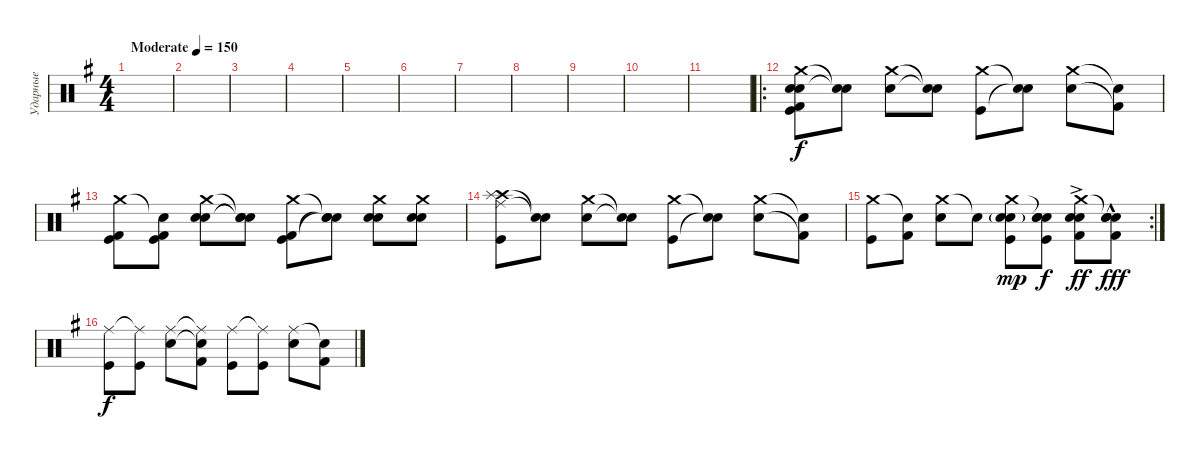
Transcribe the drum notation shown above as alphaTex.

\track ("Ударные" "Ударные") {instrument percussion}
\staff {score}
\articulation defaults
\ts (4 4)
\tempo (150 "Moderate")
\clef neutral
\ks g
|
|
|
|
|
|
|
|
|
|
|
\ro
("Crash medium (hit)" "Electric Snare (hit)" "Snare (hit) 2" "Kick (hit) 2" "Kick (hit)").8 ("Snare (hit)"{t} "Snare (hit)"{t}).8 ("Crash medium (hit)" "Snare (hit) 2").8 ("Snare (hit)"{t} "Snare (hit)"{t}).8 ("Crash medium (hit)" "Kick (hit)").8 ("Snare (hit)"{t} "Snare (hit)"{t}).8 ("Crash medium (hit)" "Snare (hit) 2").8 ("Snare (hit)"{t} "Kick (hit) 2"{t}).8 |
("Crash medium (hit)" "Kick (hit) 2" "Kick (hit)").8 ("Snare (hit)"{t} "Kick (hit) 2" "Kick (hit)").8 ("Crash medium (hit)" "Snare (hit) 2" "Electric Snare (hit)").8 ("Snare (hit)"{t} "Snare (hit) 2"{t} "Snare (hit)"{t}).8 ("Crash medium (hit)" "Kick (hit) 2" "Kick (hit)").8 ("Snare (hit)"{t} "Snare (hit)"{t} "Snare (hit)"{t}).8 ("Crash medium (hit)" "Snare (hit) 2" "Electric Snare (hit)").8 ("Crash medium (hit)" "Snare (hit) 2" "Electric Snare (hit)").8 |
("Ride (middle)" "Crash high (hit)" "Splash (hit)" "Kick (hit)").8 ("Snare (hit)"{t} "Snare (hit)"{t}).8 ("Crash medium (hit)" "Snare (hit) 2").8 ("Snare (hit)"{t} "Snare (hit)"{t}).8 ("Crash medium (hit)" "Kick (hit)").8 ("Snare (hit)"{t} "Snare (hit)"{t}).8 ("Crash medium (hit)" "Snare (hit) 2").8 ("Snare (hit)"{t} "Kick (hit) 2"{t}).8 |
\rc 2
("Crash medium (hit)" "Kick (hit)").8 ("Snare (hit)"{t} "Kick (hit) 2").8 ("Crash medium (hit)" "Snare (hit) 2").8 "Snare (hit)"{t}.8 ("Crash medium (hit)" "Electric Snare (hit)"{g} "Snare (hit) 2"{g} "Kick (hit)").8{dy mp} ("Snare (hit)"{t} "Electric Snare (hit)" "Snare (hit) 2" "Kick (hit)").8{dy f} ("Crash medium (hit)" "Electric Snare (hit)"{ac} "Snare (hit) 2"{ac} "Kick (hit) 2"{ac}).8{dy ff} ("Snare (hit)"{t} "Electric Snare (hit)"{hac} "Snare (hit) 2"{hac} "Kick (hit) 2"{hac}).8{dy fff} |
("Ride (middle)" "Kick (hit)").8{dy f} ("Ride (middle)"{t} "Kick (hit)").8 ("Ride (middle)" "Snare (hit) 2").8 ("Ride (middle)"{t} "Snare (hit)"{t} "Kick (hit) 2").8 ("Ride (middle)" "Kick (hit)").8 ("Ride (middle)"{t} "Kick (hit)").8 ("Ride (middle)" "Snare (hit) 2").8 ("Snare (hit)"{t} "Kick (hit) 2").8
